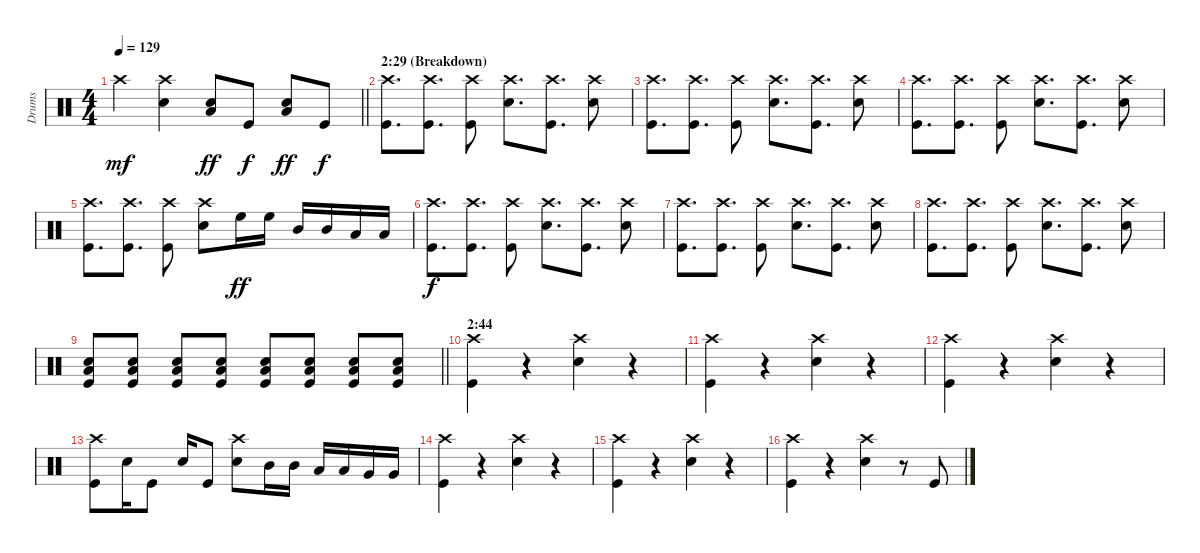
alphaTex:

\track ("Drums" "Drums") {instrument percussion}
\staff {score}
\articulation defaults
\ts (4 4)
\tempo 129
\clef neutral
\barLineRight lightlight
\ks c "Crash high (hit)".4{dy mf}
("Crash high (hit)" "Snare (hit) 2").4 ("Low Floor Tom (hit)" "Snare (hit) 2").8{dy ff} "Kick (hit)".8{dy f} ("Low Floor Tom (hit)" "Snare (hit) 2").8{dy ff} "Kick (hit)".8{dy f} |
\section ("" "2:29 (Breakdown)")
("Crash high (hit)" "Kick (hit)").8{d} ("Crash high (hit)" "Kick (hit)").8{d} ("Crash high (hit)" "Kick (hit)").8 ("Crash high (hit)" "Snare (hit) 2").8{d} ("Crash high (hit)" "Kick (hit)").8{d} ("Crash high (hit)" "Snare (hit) 2").8 |
("Crash high (hit)" "Kick (hit)").8{d} ("Crash high (hit)" "Kick (hit)").8{d} ("Crash high (hit)" "Kick (hit)").8 ("Crash high (hit)" "Snare (hit) 2").8{d} ("Crash high (hit)" "Kick (hit)").8{d} ("Crash high (hit)" "Snare (hit) 2").8 |
("Crash high (hit)" "Kick (hit)").8{d} ("Crash high (hit)" "Kick (hit)").8{d} ("Crash high (hit)" "Kick (hit)").8 ("Crash high (hit)" "Snare (hit) 2").8{d} ("Crash high (hit)" "Kick (hit)").8{d} ("Crash high (hit)" "Snare (hit) 2").8 |
("Crash high (hit)" "Kick (hit)").8{d} ("Crash high (hit)" "Kick (hit)").8{d} ("Crash high (hit)" "Kick (hit)").8 ("Crash high (hit)" "Snare (hit) 2").8 "High Floor Tom (hit)".16{dy ff} "High Floor Tom (hit)".16 "Mid Tom (hit)".16 "Mid Tom (hit)".16 "Low Tom (hit)".16 "Low Tom (hit)".16 |
("Crash high (hit)" "Kick (hit)").8{d dy f} ("Crash high (hit)" "Kick (hit)").8{d} ("Crash high (hit)" "Kick (hit)").8 ("Crash high (hit)" "Snare (hit) 2").8{d} ("Crash high (hit)" "Kick (hit)").8{d} ("Crash high (hit)" "Snare (hit) 2").8 |
("Crash high (hit)" "Kick (hit)").8{d} ("Crash high (hit)" "Kick (hit)").8{d} ("Crash high (hit)" "Kick (hit)").8 ("Crash high (hit)" "Snare (hit) 2").8{d} ("Crash high (hit)" "Kick (hit)").8{d} ("Crash high (hit)" "Snare (hit) 2").8 |
("Crash high (hit)" "Kick (hit)").8{d} ("Crash high (hit)" "Kick (hit)").8{d} ("Crash high (hit)" "Kick (hit)").8 ("Crash high (hit)" "Snare (hit) 2").8{d} ("Crash high (hit)" "Kick (hit)").8{d} ("Crash high (hit)" "Snare (hit) 2").8 |
\barLineRight lightlight
("Low Floor Tom (hit)" "Snare (hit) 2" "Kick (hit)").8 ("Low Floor Tom (hit)" "Snare (hit) 2" "Kick (hit)").8 ("Low Floor Tom (hit)" "Snare (hit) 2" "Kick (hit)").8 ("Low Floor Tom (hit)" "Snare (hit) 2" "Kick (hit)").8 ("Low Floor Tom (hit)" "Snare (hit) 2" "Kick (hit)").8 ("Low Floor Tom (hit)" "Snare (hit) 2" "Kick (hit)").8 ("Low Floor Tom (hit)" "Snare (hit) 2" "Kick (hit)").8 ("Low Floor Tom (hit)" "Snare (hit) 2" "Kick (hit)").8 |
\section ("" "2:44")
("Crash high (hit)" "Kick (hit)").4 r.4 ("Crash high (hit)" "Snare (hit) 2").4 r.4 |
("Crash high (hit)" "Kick (hit)").4 r.4 ("Crash high (hit)" "Snare (hit) 2").4 r.4 |
("Crash high (hit)" "Kick (hit)").4 r.4 ("Crash high (hit)" "Snare (hit) 2").4 r.4 |
("Crash high (hit)" "Kick (hit)").8 "Snare (hit) 2".16 "Kick (hit)".8 "Snare (hit) 2".16 "Kick (hit)".8 ("Crash high (hit)" "Snare (hit) 2").8 "Mid Tom (hit)".16 "Mid Tom (hit)".16 "Low Tom (hit)".16 "Low Tom (hit)".16 "Very Low Tom (hit)".16 "Very Low Tom (hit)".16 |
("Crash high (hit)" "Kick (hit)").4 r.4 ("Crash high (hit)" "Snare (hit) 2").4 r.4 |
("Crash high (hit)" "Kick (hit)").4 r.4 ("Crash high (hit)" "Snare (hit) 2").4 r.4 |
("Crash high (hit)" "Kick (hit)").4 r.4 ("Crash high (hit)" "Snare (hit) 2").4 r.8 "Kick (hit)".8
